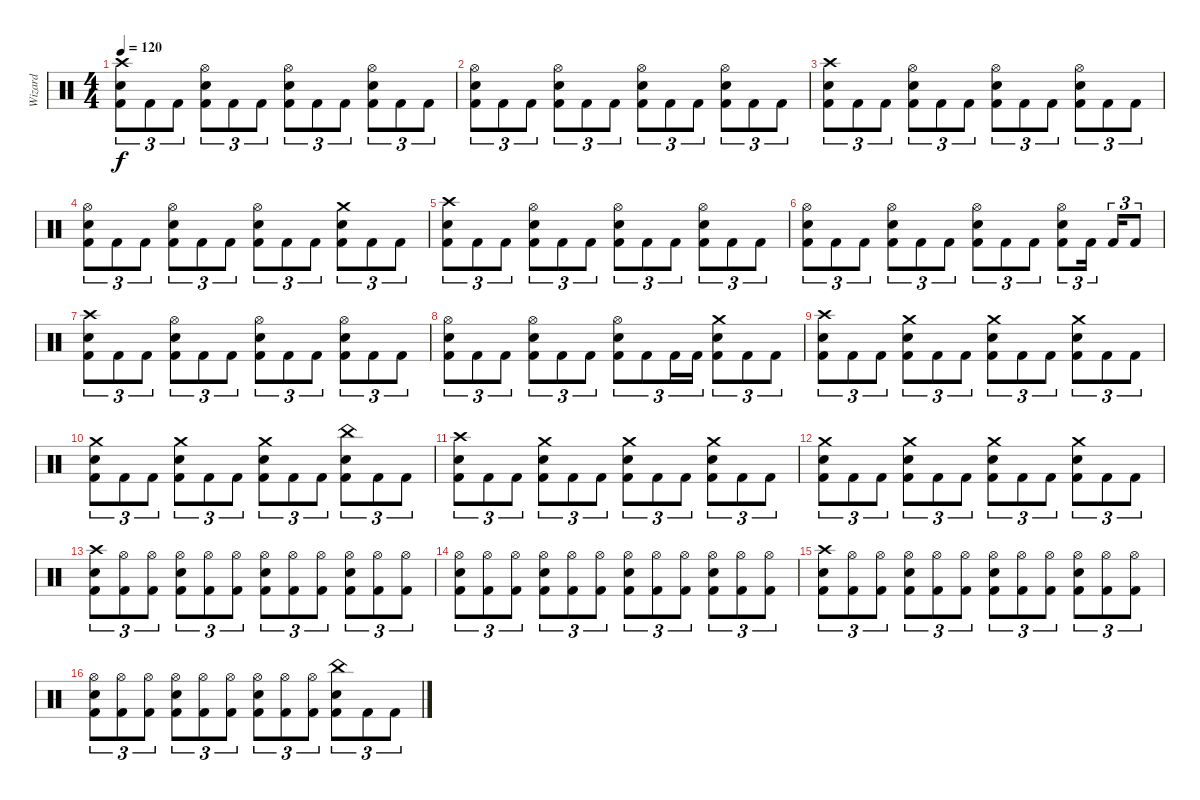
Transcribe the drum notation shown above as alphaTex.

\track ("Wizard" "Wizard") {instrument percussion}
\staff {score}
\articulation defaults
\ts (4 4)
\tempo 120
\clef neutral
\ks c
("Crash high (hit)" "Snare (hit) 2" "Kick (hit) 2").8{tu (3 2) dy f} "Kick (hit) 2".8{tu (3 2)} "Kick (hit) 2".8{tu (3 2)} ("Hi-Hat (open)" "Snare (hit) 2" "Kick (hit) 2").8{tu (3 2)} "Kick (hit) 2".8{tu (3 2)} "Kick (hit) 2".8{tu (3 2)} ("Hi-Hat (open)" "Snare (hit) 2" "Kick (hit) 2").8{tu (3 2)} "Kick (hit) 2".8{tu (3 2)} "Kick (hit) 2".8{tu (3 2)} ("Hi-Hat (open)" "Snare (hit) 2" "Kick (hit) 2").8{tu (3 2)} "Kick (hit) 2".8{tu (3 2)} "Kick (hit) 2".8{tu (3 2)} |
("Hi-Hat (open)" "Snare (hit) 2" "Kick (hit) 2").8{tu (3 2)} "Kick (hit) 2".8{tu (3 2)} "Kick (hit) 2".8{tu (3 2)} ("Hi-Hat (open)" "Snare (hit) 2" "Kick (hit) 2").8{tu (3 2)} "Kick (hit) 2".8{tu (3 2)} "Kick (hit) 2".8{tu (3 2)} ("Hi-Hat (open)" "Snare (hit) 2" "Kick (hit) 2").8{tu (3 2)} "Kick (hit) 2".8{tu (3 2)} "Kick (hit) 2".8{tu (3 2)} ("Hi-Hat (open)" "Snare (hit) 2" "Kick (hit) 2").8{tu (3 2)} "Kick (hit) 2".8{tu (3 2)} "Kick (hit) 2".8{tu (3 2)} |
("Crash high (hit)" "Snare (hit) 2" "Kick (hit) 2").8{tu (3 2)} "Kick (hit) 2".8{tu (3 2)} "Kick (hit) 2".8{tu (3 2)} ("Hi-Hat (open)" "Snare (hit) 2" "Kick (hit) 2").8{tu (3 2)} "Kick (hit) 2".8{tu (3 2)} "Kick (hit) 2".8{tu (3 2)} ("Hi-Hat (open)" "Snare (hit) 2" "Kick (hit) 2").8{tu (3 2)} "Kick (hit) 2".8{tu (3 2)} "Kick (hit) 2".8{tu (3 2)} ("Hi-Hat (open)" "Snare (hit) 2" "Kick (hit) 2").8{tu (3 2)} "Kick (hit) 2".8{tu (3 2)} "Kick (hit) 2".8{tu (3 2)} |
("Hi-Hat (open)" "Snare (hit) 2" "Kick (hit) 2").8{tu (3 2)} "Kick (hit) 2".8{tu (3 2)} "Kick (hit) 2".8{tu (3 2)} ("Hi-Hat (open)" "Snare (hit) 2" "Kick (hit) 2").8{tu (3 2)} "Kick (hit) 2".8{tu (3 2)} "Kick (hit) 2".8{tu (3 2)} ("Hi-Hat (open)" "Snare (hit) 2" "Kick (hit) 2").8{tu (3 2)} "Kick (hit) 2".8{tu (3 2)} "Kick (hit) 2".8{tu (3 2)} ("Crash medium (hit)" "Snare (hit) 2" "Kick (hit) 2").8{tu (3 2)} "Kick (hit) 2".8{tu (3 2)} "Kick (hit) 2".8{tu (3 2)} |
("Crash high (hit)" "Snare (hit) 2" "Kick (hit) 2").8{tu (3 2)} "Kick (hit) 2".8{tu (3 2)} "Kick (hit) 2".8{tu (3 2)} ("Hi-Hat (open)" "Snare (hit) 2" "Kick (hit) 2").8{tu (3 2)} "Kick (hit) 2".8{tu (3 2)} "Kick (hit) 2".8{tu (3 2)} ("Hi-Hat (open)" "Snare (hit) 2" "Kick (hit) 2").8{tu (3 2)} "Kick (hit) 2".8{tu (3 2)} "Kick (hit) 2".8{tu (3 2)} ("Hi-Hat (open)" "Snare (hit) 2" "Kick (hit) 2").8{tu (3 2)} "Kick (hit) 2".8{tu (3 2)} "Kick (hit) 2".8{tu (3 2)} |
("Hi-Hat (open)" "Snare (hit) 2" "Kick (hit) 2").8{tu (3 2)} "Kick (hit) 2".8{tu (3 2)} "Kick (hit) 2".8{tu (3 2)} ("Hi-Hat (open)" "Snare (hit) 2" "Kick (hit) 2").8{tu (3 2)} "Kick (hit) 2".8{tu (3 2)} "Kick (hit) 2".8{tu (3 2)} ("Hi-Hat (open)" "Snare (hit) 2" "Kick (hit) 2").8{tu (3 2)} "Kick (hit) 2".8{tu (3 2)} "Kick (hit) 2".8{tu (3 2)} ("Hi-Hat (open)" "Snare (hit) 2" "Kick (hit) 2").8{tu (3 2)} "Kick (hit) 2".16{tu (3 2) beam splitsecondary} "Kick (hit) 2".16{tu (3 2)} "Kick (hit) 2".8{tu (3 2)} |
("Crash high (hit)" "Snare (hit) 2" "Kick (hit) 2").8{tu (3 2)} "Kick (hit) 2".8{tu (3 2)} "Kick (hit) 2".8{tu (3 2)} ("Hi-Hat (open)" "Snare (hit) 2" "Kick (hit) 2").8{tu (3 2)} "Kick (hit) 2".8{tu (3 2)} "Kick (hit) 2".8{tu (3 2)} ("Hi-Hat (open)" "Snare (hit) 2" "Kick (hit) 2").8{tu (3 2)} "Kick (hit) 2".8{tu (3 2)} "Kick (hit) 2".8{tu (3 2)} ("Hi-Hat (open)" "Snare (hit) 2" "Kick (hit) 2").8{tu (3 2)} "Kick (hit) 2".8{tu (3 2)} "Kick (hit) 2".8{tu (3 2)} |
("Hi-Hat (open)" "Snare (hit) 2" "Kick (hit) 2").8{tu (3 2)} "Kick (hit) 2".8{tu (3 2)} "Kick (hit) 2".8{tu (3 2)} ("Hi-Hat (open)" "Snare (hit) 2" "Kick (hit) 2").8{tu (3 2)} "Kick (hit) 2".8{tu (3 2)} "Kick (hit) 2".8{tu (3 2)} ("Hi-Hat (open)" "Snare (hit) 2" "Kick (hit) 2").8{tu (3 2)} "Kick (hit) 2".8{tu (3 2)} "Kick (hit) 2".16{tu (3 2)} "Kick (hit) 2".16{tu (3 2)} ("Crash medium (hit)" "Snare (hit) 2" "Kick (hit) 2").8{tu (3 2)} "Kick (hit) 2".8{tu (3 2)} "Kick (hit) 2".8{tu (3 2)} |
("Crash high (hit)" "Snare (hit) 2" "Kick (hit) 2").8{tu (3 2)} "Kick (hit) 2".8{tu (3 2)} "Kick (hit) 2".8{tu (3 2)} ("Crash medium (hit)" "Snare (hit) 2" "Kick (hit) 2").8{tu (3 2)} "Kick (hit) 2".8{tu (3 2)} "Kick (hit) 2".8{tu (3 2)} ("Crash medium (hit)" "Snare (hit) 2" "Kick (hit) 2").8{tu (3 2)} "Kick (hit) 2".8{tu (3 2)} "Kick (hit) 2".8{tu (3 2)} ("Crash medium (hit)" "Snare (hit) 2" "Kick (hit) 2").8{tu (3 2)} "Kick (hit) 2".8{tu (3 2)} "Kick (hit) 2".8{tu (3 2)} |
("Crash medium (hit)" "Snare (hit) 2" "Kick (hit) 2").8{tu (3 2)} "Kick (hit) 2".8{tu (3 2)} "Kick (hit) 2".8{tu (3 2)} ("Crash medium (hit)" "Snare (hit) 2" "Kick (hit) 2").8{tu (3 2)} "Kick (hit) 2".8{tu (3 2)} "Kick (hit) 2".8{tu (3 2)} ("Crash medium (hit)" "Snare (hit) 2" "Kick (hit) 2").8{tu (3 2)} "Kick (hit) 2".8{tu (3 2)} "Kick (hit) 2".8{tu (3 2)} ("China (hit)" "Snare (hit) 2" "Kick (hit) 2").8{tu (3 2)} "Kick (hit) 2".8{tu (3 2)} "Kick (hit) 2".8{tu (3 2)} |
("Crash high (hit)" "Snare (hit) 2" "Kick (hit) 2").8{tu (3 2)} "Kick (hit) 2".8{tu (3 2)} "Kick (hit) 2".8{tu (3 2)} ("Crash medium (hit)" "Snare (hit) 2" "Kick (hit) 2").8{tu (3 2)} "Kick (hit) 2".8{tu (3 2)} "Kick (hit) 2".8{tu (3 2)} ("Crash medium (hit)" "Snare (hit) 2" "Kick (hit) 2").8{tu (3 2)} "Kick (hit) 2".8{tu (3 2)} "Kick (hit) 2".8{tu (3 2)} ("Crash medium (hit)" "Snare (hit) 2" "Kick (hit) 2").8{tu (3 2)} "Kick (hit) 2".8{tu (3 2)} "Kick (hit) 2".8{tu (3 2)} |
("Crash medium (hit)" "Snare (hit) 2" "Kick (hit) 2").8{tu (3 2)} "Kick (hit) 2".8{tu (3 2)} "Kick (hit) 2".8{tu (3 2)} ("Crash medium (hit)" "Snare (hit) 2" "Kick (hit) 2").8{tu (3 2)} "Kick (hit) 2".8{tu (3 2)} "Kick (hit) 2".8{tu (3 2)} ("Crash medium (hit)" "Snare (hit) 2" "Kick (hit) 2").8{tu (3 2)} "Kick (hit) 2".8{tu (3 2)} "Kick (hit) 2".8{tu (3 2)} ("Crash medium (hit)" "Snare (hit) 2" "Kick (hit) 2").8{tu (3 2)} "Kick (hit) 2".8{tu (3 2)} "Kick (hit) 2".8{tu (3 2)} |
("Crash high (hit)" "Snare (hit) 2" "Kick (hit) 2").8{tu (3 2)} ("Hi-Hat (open)" "Kick (hit) 2").8{tu (3 2)} ("Hi-Hat (open)" "Kick (hit) 2").8{tu (3 2)} ("Hi-Hat (open)" "Snare (hit) 2" "Kick (hit) 2").8{tu (3 2)} ("Hi-Hat (open)" "Kick (hit) 2").8{tu (3 2)} ("Hi-Hat (open)" "Kick (hit) 2").8{tu (3 2)} ("Hi-Hat (open)" "Snare (hit) 2" "Kick (hit) 2").8{tu (3 2)} ("Hi-Hat (open)" "Kick (hit) 2").8{tu (3 2)} ("Hi-Hat (open)" "Kick (hit) 2").8{tu (3 2)} ("Hi-Hat (open)" "Snare (hit) 2" "Kick (hit) 2").8{tu (3 2)} ("Hi-Hat (open)" "Kick (hit) 2").8{tu (3 2)} ("Hi-Hat (open)" "Kick (hit) 2").8{tu (3 2)} |
("Hi-Hat (open)" "Snare (hit) 2" "Kick (hit) 2").8{tu (3 2)} ("Hi-Hat (open)" "Kick (hit) 2").8{tu (3 2)} ("Hi-Hat (open)" "Kick (hit) 2").8{tu (3 2)} ("Hi-Hat (open)" "Snare (hit) 2" "Kick (hit) 2").8{tu (3 2)} ("Hi-Hat (open)" "Kick (hit) 2").8{tu (3 2)} ("Hi-Hat (open)" "Kick (hit) 2").8{tu (3 2)} ("Hi-Hat (open)" "Snare (hit) 2" "Kick (hit) 2").8{tu (3 2)} ("Hi-Hat (open)" "Kick (hit) 2").8{tu (3 2)} ("Hi-Hat (open)" "Kick (hit) 2").8{tu (3 2)} ("Hi-Hat (open)" "Snare (hit) 2" "Kick (hit) 2").8{tu (3 2)} ("Hi-Hat (open)" "Kick (hit) 2").8{tu (3 2)} ("Hi-Hat (open)" "Kick (hit) 2").8{tu (3 2)} |
("Crash high (hit)" "Snare (hit) 2" "Kick (hit) 2").8{tu (3 2)} ("Hi-Hat (open)" "Kick (hit) 2").8{tu (3 2)} ("Hi-Hat (open)" "Kick (hit) 2").8{tu (3 2)} ("Hi-Hat (open)" "Snare (hit) 2" "Kick (hit) 2").8{tu (3 2)} ("Hi-Hat (open)" "Kick (hit) 2").8{tu (3 2)} ("Hi-Hat (open)" "Kick (hit) 2").8{tu (3 2)} ("Hi-Hat (open)" "Snare (hit) 2" "Kick (hit) 2").8{tu (3 2)} ("Hi-Hat (open)" "Kick (hit) 2").8{tu (3 2)} ("Hi-Hat (open)" "Kick (hit) 2").8{tu (3 2)} ("Hi-Hat (open)" "Snare (hit) 2" "Kick (hit) 2").8{tu (3 2)} ("Hi-Hat (open)" "Kick (hit) 2").8{tu (3 2)} ("Hi-Hat (open)" "Kick (hit) 2").8{tu (3 2)} |
("Hi-Hat (open)" "Snare (hit) 2" "Kick (hit) 2").8{tu (3 2)} ("Hi-Hat (open)" "Kick (hit) 2").8{tu (3 2)} ("Hi-Hat (open)" "Kick (hit) 2").8{tu (3 2)} ("Hi-Hat (open)" "Snare (hit) 2" "Kick (hit) 2").8{tu (3 2)} ("Hi-Hat (open)" "Kick (hit) 2").8{tu (3 2)} ("Hi-Hat (open)" "Kick (hit) 2").8{tu (3 2)} ("Hi-Hat (open)" "Snare (hit) 2" "Kick (hit) 2").8{tu (3 2)} ("Hi-Hat (open)" "Kick (hit) 2").8{tu (3 2)} ("Hi-Hat (open)" "Kick (hit) 2").8{tu (3 2)} ("China (hit)" "Snare (hit) 2" "Kick (hit) 2").8{tu (3 2)} "Kick (hit) 2".8{tu (3 2)} "Kick (hit) 2".8{tu (3 2)}
